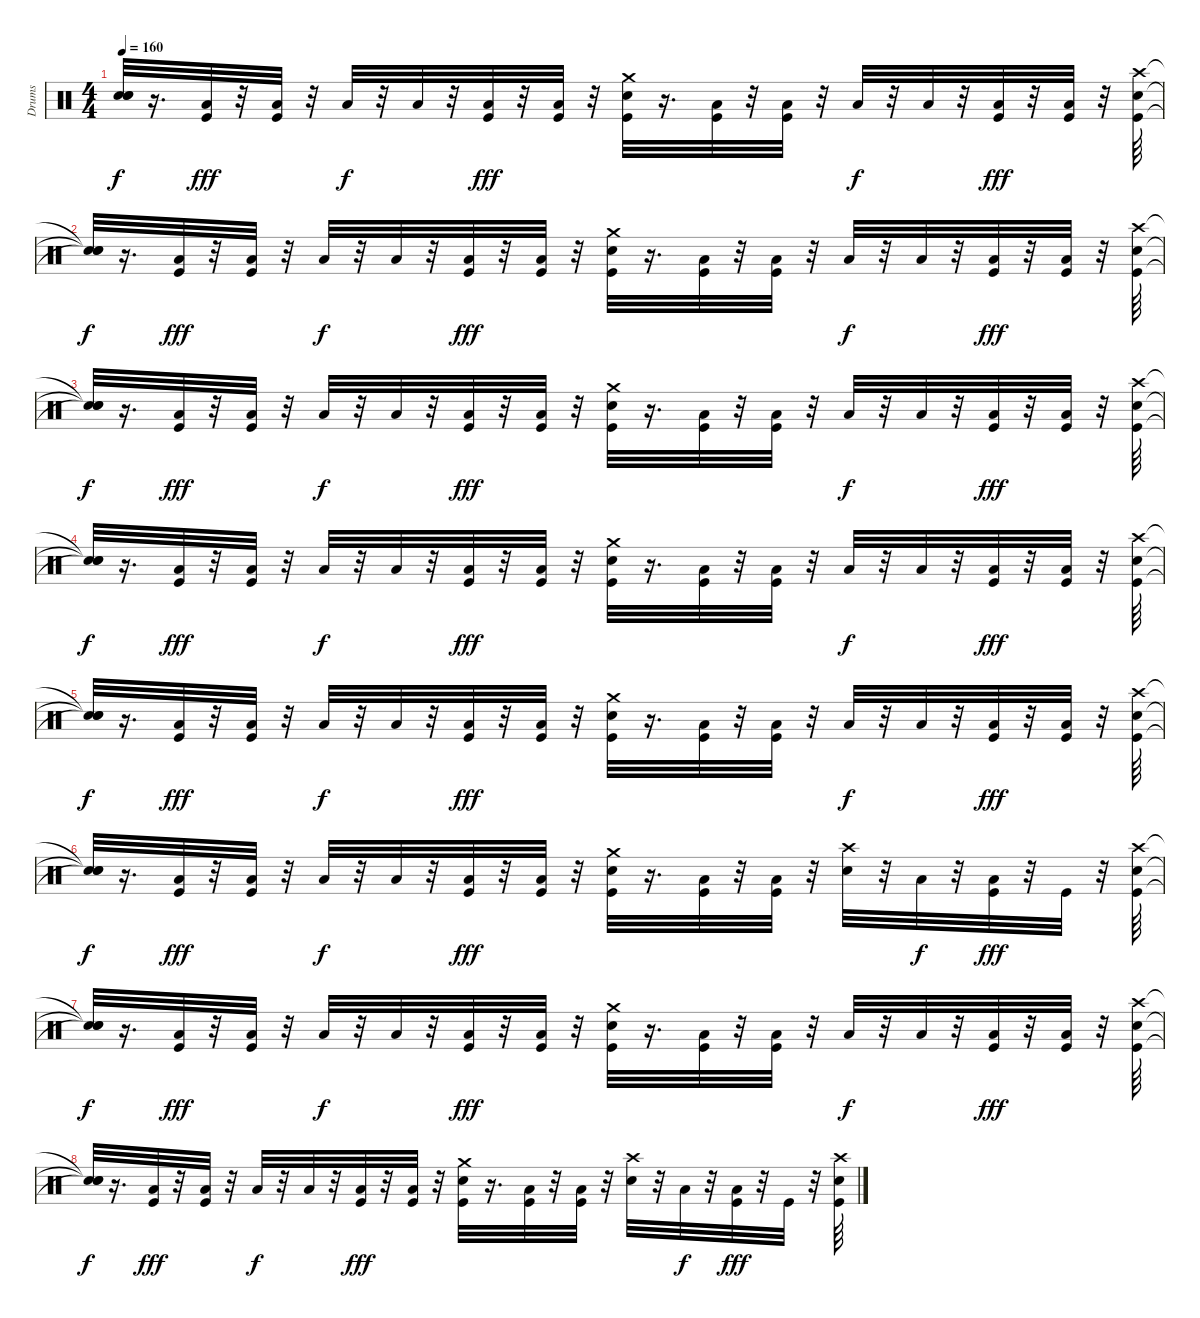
\track ("Drums" "Drums") {instrument percussion}
\staff {score}
\articulation defaults
\ts (4 4)
\tempo 160
\clef neutral
\ks c
("Snare (hit)"{t} "Snare (hit)"{t} "Snare (hit)"{t}).32{dy f} r.16{d} ("Kick (hit)" "Low Floor Tom (hit)").32{dy fff} r.32 ("Kick (hit)" "Low Tom (hit)").32 r.32 "Low Tom (hit)".32{dy f} r.32 "Low Floor Tom (hit)".32 r.32 ("Kick (hit)" "Low Floor Tom (hit)").32{dy fff} r.32 ("Kick (hit)" "Low Floor Tom (hit)").32 r.32 ("Kick (hit)" "Electric Snare (hit)" "Crash medium (hit)").32 r.16{d} ("Kick (hit)" "Low Tom (hit)").32 r.32 ("Kick (hit)" "Low Floor Tom (hit)").32 r.32 "Low Tom (hit)".32{dy f} r.32 "Low Floor Tom (hit)".32 r.32 ("Kick (hit)" "Low Floor Tom (hit)").32{dy fff} r.32 ("Kick (hit)" "Low Floor Tom (hit)").32 r.32 ("Kick (hit)" "Electric Snare (hit)" "Crash high (hit)").64 |
("Snare (hit)"{t} "Snare (hit)"{t} "Snare (hit)"{t}).32{dy f} r.16{d} ("Kick (hit)" "Low Floor Tom (hit)").32{dy fff} r.32 ("Kick (hit)" "Low Tom (hit)").32 r.32 "Low Tom (hit)".32{dy f} r.32 "Low Floor Tom (hit)".32 r.32 ("Kick (hit)" "Low Floor Tom (hit)").32{dy fff} r.32 ("Kick (hit)" "Low Floor Tom (hit)").32 r.32 ("Kick (hit)" "Electric Snare (hit)" "Crash medium (hit)").32 r.16{d} ("Kick (hit)" "Low Tom (hit)").32 r.32 ("Kick (hit)" "Low Floor Tom (hit)").32 r.32 "Low Tom (hit)".32{dy f} r.32 "Low Floor Tom (hit)".32 r.32 ("Kick (hit)" "Low Floor Tom (hit)").32{dy fff} r.32 ("Kick (hit)" "Low Floor Tom (hit)").32 r.32 ("Kick (hit)" "Electric Snare (hit)" "Crash high (hit)").64 |
("Snare (hit)"{t} "Snare (hit)"{t} "Snare (hit)"{t}).32{dy f} r.16{d} ("Kick (hit)" "Low Floor Tom (hit)").32{dy fff} r.32 ("Kick (hit)" "Low Tom (hit)").32 r.32 "Low Tom (hit)".32{dy f} r.32 "Low Floor Tom (hit)".32 r.32 ("Kick (hit)" "Low Floor Tom (hit)").32{dy fff} r.32 ("Kick (hit)" "Low Floor Tom (hit)").32 r.32 ("Kick (hit)" "Electric Snare (hit)" "Crash medium (hit)").32 r.16{d} ("Kick (hit)" "Low Tom (hit)").32 r.32 ("Kick (hit)" "Low Floor Tom (hit)").32 r.32 "Low Tom (hit)".32{dy f} r.32 "Low Floor Tom (hit)".32 r.32 ("Kick (hit)" "Low Floor Tom (hit)").32{dy fff} r.32 ("Kick (hit)" "Low Floor Tom (hit)").32 r.32 ("Kick (hit)" "Electric Snare (hit)" "Crash high (hit)").64 |
("Snare (hit)"{t} "Snare (hit)"{t} "Snare (hit)"{t}).32{dy f} r.16{d} ("Kick (hit)" "Low Floor Tom (hit)").32{dy fff} r.32 ("Kick (hit)" "Low Tom (hit)").32 r.32 "Low Tom (hit)".32{dy f} r.32 "Low Floor Tom (hit)".32 r.32 ("Kick (hit)" "Low Floor Tom (hit)").32{dy fff} r.32 ("Kick (hit)" "Low Floor Tom (hit)").32 r.32 ("Kick (hit)" "Electric Snare (hit)" "Crash medium (hit)").32 r.16{d} ("Kick (hit)" "Low Tom (hit)").32 r.32 ("Kick (hit)" "Low Floor Tom (hit)").32 r.32 "Low Tom (hit)".32{dy f} r.32 "Low Floor Tom (hit)".32 r.32 ("Kick (hit)" "Low Floor Tom (hit)").32{dy fff} r.32 ("Kick (hit)" "Low Floor Tom (hit)").32 r.32 ("Kick (hit)" "Electric Snare (hit)" "Crash high (hit)").64 |
("Snare (hit)"{t} "Snare (hit)"{t} "Snare (hit)"{t}).32{dy f} r.16{d} ("Kick (hit)" "Low Floor Tom (hit)").32{dy fff} r.32 ("Kick (hit)" "Low Tom (hit)").32 r.32 "Low Tom (hit)".32{dy f} r.32 "Low Floor Tom (hit)".32 r.32 ("Kick (hit)" "Low Floor Tom (hit)").32{dy fff} r.32 ("Kick (hit)" "Low Floor Tom (hit)").32 r.32 ("Kick (hit)" "Electric Snare (hit)" "Crash medium (hit)").32 r.16{d} ("Kick (hit)" "Low Tom (hit)").32 r.32 ("Kick (hit)" "Low Floor Tom (hit)").32 r.32 "Low Tom (hit)".32{dy f} r.32 "Low Floor Tom (hit)".32 r.32 ("Kick (hit)" "Low Floor Tom (hit)").32{dy fff} r.32 ("Kick (hit)" "Low Floor Tom (hit)").32 r.32 ("Kick (hit)" "Electric Snare (hit)" "Crash high (hit)").64 |
("Snare (hit)"{t} "Snare (hit)"{t} "Snare (hit)"{t}).32{dy f} r.16{d} ("Kick (hit)" "Low Floor Tom (hit)").32{dy fff} r.32 ("Kick (hit)" "Low Tom (hit)").32 r.32 "Low Tom (hit)".32{dy f} r.32 "Low Floor Tom (hit)".32 r.32 ("Kick (hit)" "Low Floor Tom (hit)").32{dy fff} r.32 ("Kick (hit)" "Low Floor Tom (hit)").32 r.32 ("Crash medium (hit)" "Kick (hit)" "Electric Snare (hit)").32 r.16{d} ("Kick (hit)" "Low Tom (hit)").32 r.32 ("Kick (hit)" "Low Floor Tom (hit)").32 r.32 ("Electric Snare (hit)" "Crash high (hit)").32 r.32 "Low Floor Tom (hit)".32{dy f} r.32 ("Kick (hit)" "Low Floor Tom (hit)").32{dy fff} r.32 "Kick (hit)".32 r.32 ("Kick (hit)" "Electric Snare (hit)" "Crash high (hit)").64 |
("Snare (hit)"{t} "Snare (hit)"{t} "Snare (hit)"{t}).32{dy f} r.16{d} ("Kick (hit)" "Low Floor Tom (hit)").32{dy fff} r.32 ("Kick (hit)" "Low Tom (hit)").32 r.32 "Low Tom (hit)".32{dy f} r.32 "Low Floor Tom (hit)".32 r.32 ("Kick (hit)" "Low Floor Tom (hit)").32{dy fff} r.32 ("Kick (hit)" "Low Floor Tom (hit)").32 r.32 ("Kick (hit)" "Electric Snare (hit)" "Crash medium (hit)").32 r.16{d} ("Kick (hit)" "Low Tom (hit)").32 r.32 ("Kick (hit)" "Low Floor Tom (hit)").32 r.32 "Low Tom (hit)".32{dy f} r.32 "Low Floor Tom (hit)".32 r.32 ("Kick (hit)" "Low Floor Tom (hit)").32{dy fff} r.32 ("Kick (hit)" "Low Floor Tom (hit)").32 r.32 ("Kick (hit)" "Electric Snare (hit)" "Crash high (hit)").64 |
("Snare (hit)"{t} "Snare (hit)"{t} "Snare (hit)"{t}).32{dy f} r.16{d} ("Kick (hit)" "Low Floor Tom (hit)").32{dy fff} r.32 ("Kick (hit)" "Low Tom (hit)").32 r.32 "Low Tom (hit)".32{dy f} r.32 "Low Floor Tom (hit)".32 r.32 ("Kick (hit)" "Low Floor Tom (hit)").32{dy fff} r.32 ("Kick (hit)" "Low Floor Tom (hit)").32 r.32 ("Crash medium (hit)" "Kick (hit)" "Electric Snare (hit)").32 r.16{d} ("Kick (hit)" "Low Tom (hit)").32 r.32 ("Kick (hit)" "Low Floor Tom (hit)").32 r.32 ("Electric Snare (hit)" "Crash high (hit)").32 r.32 "Low Floor Tom (hit)".32{dy f} r.32 ("Kick (hit)" "Low Floor Tom (hit)").32{dy fff} r.32 "Kick (hit)".32 r.32 ("Electric Snare (hit)" "Kick (hit)" "Crash high (hit)").64
